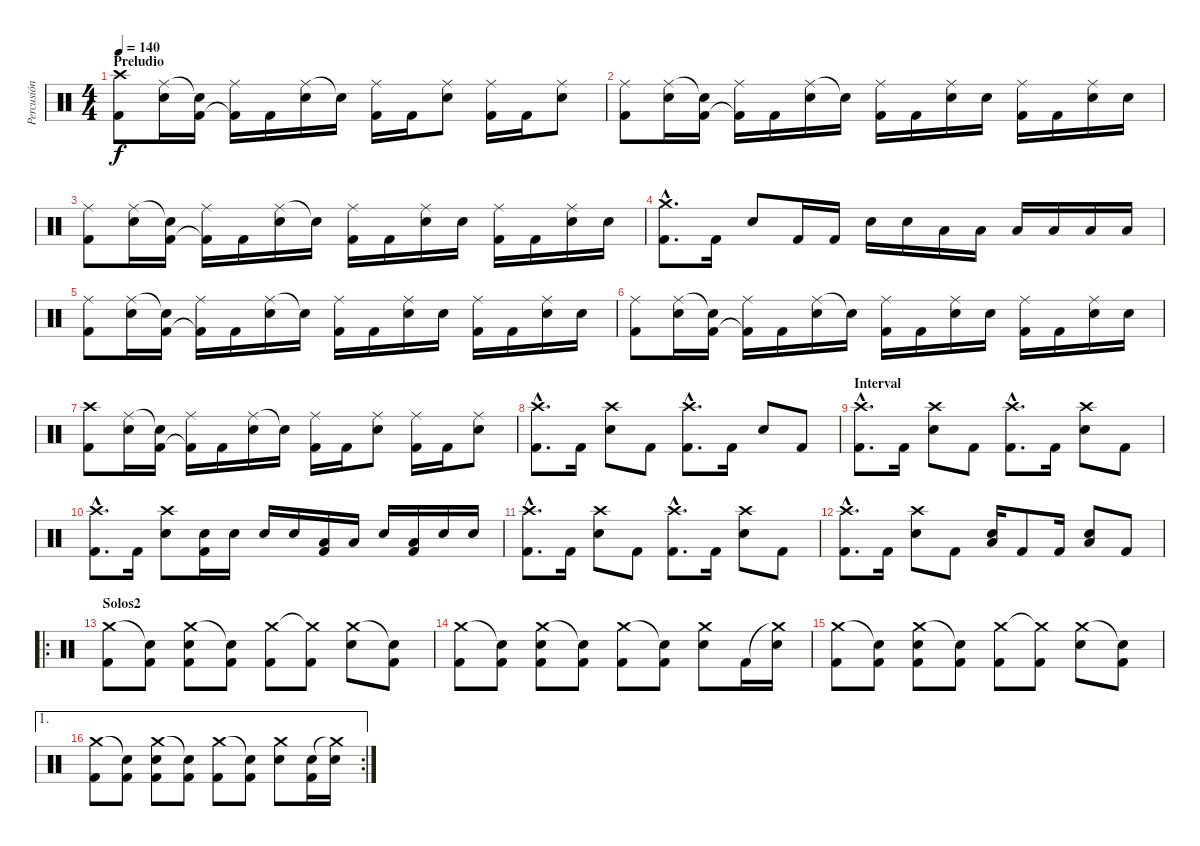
\track ("Percusión" "Percusión") {instrument percussion}
\staff {score}
\articulation defaults
\ts (4 4)
\section ("" "Preludio")
\tempo 140
\clef neutral
\ks c
("Crash high (hit)" "Kick (hit) 2").8{dy f} ("Ride (middle)" "Electric Snare (hit)").16 ("Snare (hit)"{t} "Kick (hit) 2").16 ("Ride (middle)" "Kick (hit) 2"{t}).16 "Kick (hit) 2".16 ("Ride (middle)" "Electric Snare (hit)").16 "Snare (hit)"{t}.16 ("Ride (middle)" "Kick (hit) 2").16 "Kick (hit) 2".16 ("Ride (middle)" "Electric Snare (hit)").8 ("Ride (middle)" "Kick (hit) 2").16 "Kick (hit) 2".16 ("Ride (middle)" "Electric Snare (hit)").8 |
("Ride (middle)" "Kick (hit) 2").8 ("Ride (middle)" "Electric Snare (hit)").16 ("Snare (hit)"{t} "Kick (hit) 2").16 ("Ride (middle)" "Kick (hit) 2"{t}).16 "Kick (hit) 2".16 ("Ride (middle)" "Electric Snare (hit)").16 "Snare (hit)"{t}.16 ("Ride (middle)" "Kick (hit) 2").16 "Kick (hit) 2".16 ("Ride (middle)" "Electric Snare (hit)").16 "Electric Snare (hit)".16 ("Ride (middle)" "Kick (hit) 2").16 "Kick (hit) 2".16 ("Ride (middle)" "Electric Snare (hit)").16 "Electric Snare (hit)".16 |
("Ride (middle)" "Kick (hit) 2").8 ("Ride (middle)" "Electric Snare (hit)").16 ("Snare (hit)"{t} "Kick (hit) 2").16 ("Ride (middle)" "Kick (hit) 2"{t}).16 "Kick (hit) 2".16 ("Ride (middle)" "Electric Snare (hit)").16 "Snare (hit)"{t}.16 ("Ride (middle)" "Kick (hit) 2").16 "Kick (hit) 2".16 ("Ride (middle)" "Electric Snare (hit)").16 "Electric Snare (hit)".16 ("Ride (middle)" "Kick (hit) 2").16 "Kick (hit) 2".16 ("Ride (middle)" "Electric Snare (hit)").16 "Electric Snare (hit)".16 |
("Crash medium (hit)"{hac} "Kick (hit) 2"{hac}).8{d} "Kick (hit) 2".16 "Electric Snare (hit)".8 "Kick (hit) 2".16 "Kick (hit) 2".16 "Electric Snare (hit)".16 "Electric Snare (hit)".16 "Low Floor Tom (hit)".16 "Low Floor Tom (hit)".16 "Low Floor Tom (hit)".16 "Low Floor Tom (hit)".16 "Low Floor Tom (hit)".16 "Low Floor Tom (hit)".16 |
("Ride (middle)" "Kick (hit) 2").8 ("Ride (middle)" "Electric Snare (hit)").16 ("Snare (hit)"{t} "Kick (hit) 2").16 ("Ride (middle)" "Kick (hit) 2"{t}).16 "Kick (hit) 2".16 ("Ride (middle)" "Electric Snare (hit)").16 "Snare (hit)"{t}.16 ("Ride (middle)" "Kick (hit) 2").16 "Kick (hit) 2".16 ("Ride (middle)" "Electric Snare (hit)").16 "Electric Snare (hit)".16 ("Ride (middle)" "Kick (hit) 2").16 "Kick (hit) 2".16 ("Ride (middle)" "Electric Snare (hit)").16 "Electric Snare (hit)".16 |
("Ride (middle)" "Kick (hit) 2").8 ("Ride (middle)" "Electric Snare (hit)").16 ("Snare (hit)"{t} "Kick (hit) 2").16 ("Ride (middle)" "Kick (hit) 2"{t}).16 "Kick (hit) 2".16 ("Ride (middle)" "Electric Snare (hit)").16 "Snare (hit)"{t}.16 ("Ride (middle)" "Kick (hit) 2").16 "Kick (hit) 2".16 ("Ride (middle)" "Electric Snare (hit)").16 "Electric Snare (hit)".16 ("Ride (middle)" "Kick (hit) 2").16 "Kick (hit) 2".16 ("Ride (middle)" "Electric Snare (hit)").16 "Electric Snare (hit)".16 |
("Crash high (hit)" "Kick (hit) 2").8 ("Ride (middle)" "Electric Snare (hit)").16 ("Snare (hit)"{t} "Kick (hit) 2").16 ("Ride (middle)" "Kick (hit) 2"{t}).16 "Kick (hit) 2".16 ("Ride (middle)" "Electric Snare (hit)").16 "Snare (hit)"{t}.16 ("Ride (middle)" "Kick (hit) 2").16 "Kick (hit) 2".16 ("Ride (middle)" "Electric Snare (hit)").8 ("Ride (middle)" "Kick (hit) 2").16 "Kick (hit) 2".16 ("Ride (middle)" "Electric Snare (hit)").8 |
("Crash high (hit)"{hac} "Kick (hit) 2"{hac}).8{d} "Kick (hit) 2".16 ("Crash high (hit)" "Electric Snare (hit)").8 "Kick (hit) 2".8 ("Crash high (hit)"{hac} "Kick (hit) 2"{hac}).8{d} "Kick (hit) 2".16 "Electric Snare (hit)".8 "Kick (hit) 2".8 |
\section ("" "Interval")
("Crash high (hit)"{hac} "Kick (hit) 2"{hac}).8{d} "Kick (hit) 2".16 ("Crash high (hit)" "Electric Snare (hit)").8 "Kick (hit) 2".8 ("Crash high (hit)"{hac} "Kick (hit) 2"{hac}).8{d} "Kick (hit) 2".16 ("Crash high (hit)" "Electric Snare (hit)").8 "Kick (hit) 2".8 |
("Crash high (hit)"{hac} "Kick (hit) 2"{hac}).8{d} "Kick (hit) 2".16 ("Crash high (hit)" "Electric Snare (hit)").8 ("Electric Snare (hit)" "Kick (hit) 2").16 "Electric Snare (hit)".16 "Electric Snare (hit)".16 "Electric Snare (hit)".16 ("Low Floor Tom (hit)" "Kick (hit) 2").16 "Low Floor Tom (hit)".16 "Electric Snare (hit)".16 ("Low Floor Tom (hit)" "Kick (hit) 2").16 "Electric Snare (hit)".16 "Electric Snare (hit)".16 |
("Crash high (hit)"{hac} "Kick (hit) 2"{hac}).8{d} "Kick (hit) 2".16 ("Crash high (hit)" "Electric Snare (hit)").8 "Kick (hit) 2".8 ("Crash high (hit)"{hac} "Kick (hit) 2"{hac}).8{d} "Kick (hit) 2".16 ("Crash high (hit)" "Electric Snare (hit)").8 "Kick (hit) 2".8 |
("Crash high (hit)"{hac} "Kick (hit) 2"{hac}).8{d} "Kick (hit) 2".16 ("Crash high (hit)" "Electric Snare (hit)").8 "Kick (hit) 2".8 ("Electric Snare (hit)" "Low Floor Tom (hit)").16 "Kick (hit) 2".8 "Kick (hit) 2".16 ("Electric Snare (hit)" "Low Floor Tom (hit)").8 "Kick (hit) 2".8 |
\ro
\section ("" "Solos2")
("Crash medium (hit)" "Kick (hit) 2").8 ("Snare (hit)"{t} "Kick (hit) 2").8 ("Crash medium (hit)" "Electric Snare (hit)" "Kick (hit) 2").8 ("Snare (hit)"{t} "Kick (hit) 2").8 ("Crash medium (hit)" "Kick (hit) 2").8 ("Crash medium (hit)"{t} "Kick (hit) 2").8 ("Crash medium (hit)" "Electric Snare (hit)").8 ("Snare (hit)"{t} "Kick (hit) 2").8 |
("Crash medium (hit)" "Kick (hit) 2").8 ("Snare (hit)"{t} "Kick (hit) 2").8 ("Crash medium (hit)" "Electric Snare (hit)" "Kick (hit) 2").8 ("Snare (hit)"{t} "Kick (hit) 2").8 ("Crash medium (hit)" "Kick (hit) 2").8 ("Snare (hit)"{t} "Kick (hit) 2").8 ("Crash medium (hit)" "Electric Snare (hit)").8 "Kick (hit) 2".16 ("Crash medium (hit)"{t} "Electric Snare (hit)").16 |
("Crash medium (hit)" "Kick (hit) 2").8 ("Snare (hit)"{t} "Kick (hit) 2").8 ("Crash medium (hit)" "Electric Snare (hit)" "Kick (hit) 2").8 ("Snare (hit)"{t} "Kick (hit) 2").8 ("Crash medium (hit)" "Kick (hit) 2").8 ("Crash medium (hit)"{t} "Kick (hit) 2").8 ("Crash medium (hit)" "Electric Snare (hit)").8 ("Snare (hit)"{t} "Kick (hit) 2").8 |
\ae 1
\rc 2
("Crash medium (hit)" "Kick (hit) 2").8 ("Snare (hit)"{t} "Kick (hit) 2").8 ("Crash medium (hit)" "Electric Snare (hit)" "Kick (hit) 2").8 ("Snare (hit)"{t} "Kick (hit) 2").8 ("Crash medium (hit)" "Kick (hit) 2").8 ("Snare (hit)"{t} "Kick (hit) 2").8 ("Crash medium (hit)" "Electric Snare (hit)").8 ("Electric Snare (hit)" "Kick (hit) 2").16 ("Crash medium (hit)"{t} "Electric Snare (hit)").16
